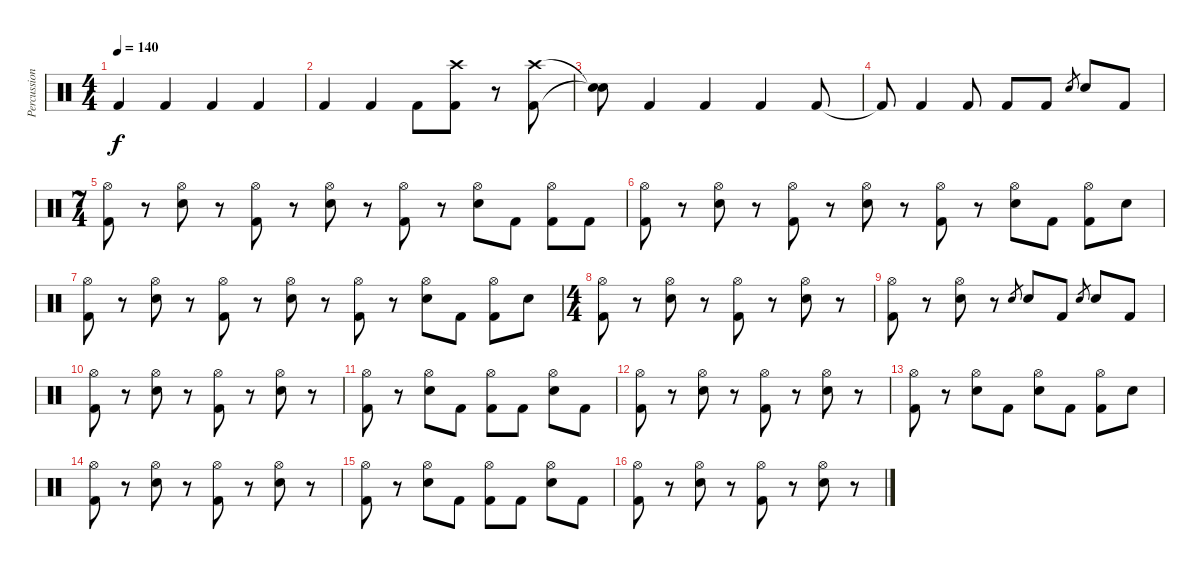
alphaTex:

\track ("Percussion" "Percussion") {instrument percussion}
\staff {score}
\articulation defaults
\ts (4 4)
\tempo 140
\clef neutral
\ks c "Kick (hit) 2".4{dy f} "Kick (hit) 2".4 "Kick (hit) 2".4 "Kick (hit) 2".4
|
"Kick (hit) 2".4 "Kick (hit) 2".4 "Kick (hit) 2".8 ("Crash high (hit)" "Kick (hit) 2").8 r.8 ("Crash high (hit)" "Kick (hit) 2").8 |
("Snare (hit)"{t} "Snare (hit)"{t}).8 "Kick (hit) 2".4 "Kick (hit) 2".4 "Kick (hit) 2".4 "Kick (hit) 2".8 |
"Kick (hit) 2"{t}.8 "Kick (hit) 2".4 "Kick (hit) 2".8 "Kick (hit) 2".8 "Kick (hit) 2".8 "Electric Snare (hit)".8{gr} "Electric Snare (hit)".8 "Kick (hit) 2".8 |
\ts (7 4)
("Hi-Hat (open)" "Kick (hit) 2").8 r.8 ("Hi-Hat (open)" "Electric Snare (hit)").8 r.8 ("Hi-Hat (open)" "Kick (hit) 2").8 r.8 ("Hi-Hat (open)" "Electric Snare (hit)").8 r.8 ("Hi-Hat (open)" "Kick (hit) 2").8 r.8 ("Hi-Hat (open)" "Electric Snare (hit)").8 "Kick (hit) 2".8 ("Hi-Hat (open)" "Kick (hit) 2").8 "Kick (hit) 2".8 |
("Hi-Hat (open)" "Kick (hit) 2").8 r.8 ("Hi-Hat (open)" "Electric Snare (hit)").8 r.8 ("Hi-Hat (open)" "Kick (hit) 2").8 r.8 ("Hi-Hat (open)" "Electric Snare (hit)").8 r.8 ("Hi-Hat (open)" "Kick (hit) 2").8 r.8 ("Hi-Hat (open)" "Electric Snare (hit)").8 "Kick (hit) 2".8 ("Hi-Hat (open)" "Kick (hit) 2").8 "Electric Snare (hit)".8 |
("Hi-Hat (open)" "Kick (hit) 2").8 r.8 ("Hi-Hat (open)" "Electric Snare (hit)").8 r.8 ("Hi-Hat (open)" "Kick (hit) 2").8 r.8 ("Hi-Hat (open)" "Electric Snare (hit)").8 r.8 ("Hi-Hat (open)" "Kick (hit) 2").8 r.8 ("Hi-Hat (open)" "Electric Snare (hit)").8 "Kick (hit) 2".8 ("Hi-Hat (open)" "Kick (hit) 2").8 "Electric Snare (hit)".8 |
\ts (4 4)
("Hi-Hat (open)" "Kick (hit) 2").8 r.8 ("Hi-Hat (open)" "Electric Snare (hit)").8 r.8 ("Hi-Hat (open)" "Kick (hit) 2").8 r.8 ("Hi-Hat (open)" "Electric Snare (hit)").8 r.8 |
("Hi-Hat (open)" "Kick (hit) 2").8 r.8 ("Hi-Hat (open)" "Electric Snare (hit)").8 r.8 "Electric Snare (hit)".8{gr} "Electric Snare (hit)".8 "Kick (hit) 2".8 "Electric Snare (hit)".8{gr} "Electric Snare (hit)".8 "Kick (hit) 2".8 |
("Hi-Hat (open)" "Kick (hit) 2").8 r.8 ("Hi-Hat (open)" "Electric Snare (hit)").8 r.8 ("Hi-Hat (open)" "Kick (hit) 2").8 r.8 ("Hi-Hat (open)" "Electric Snare (hit)").8 r.8 |
("Hi-Hat (open)" "Kick (hit) 2").8 r.8 ("Hi-Hat (open)" "Electric Snare (hit)").8 "Kick (hit) 2".8 ("Hi-Hat (open)" "Kick (hit) 2").8 "Kick (hit) 2".8 ("Hi-Hat (open)" "Electric Snare (hit)").8 "Kick (hit) 2".8 |
("Hi-Hat (open)" "Kick (hit) 2").8 r.8 ("Hi-Hat (open)" "Electric Snare (hit)").8 r.8 ("Hi-Hat (open)" "Kick (hit) 2").8 r.8 ("Hi-Hat (open)" "Electric Snare (hit)").8 r.8 |
("Hi-Hat (open)" "Kick (hit) 2").8 r.8 ("Hi-Hat (open)" "Electric Snare (hit)").8 "Kick (hit) 2".8 ("Hi-Hat (open)" "Electric Snare (hit)").8 "Kick (hit) 2".8 ("Hi-Hat (open)" "Kick (hit) 2").8 "Electric Snare (hit)".8 |
("Hi-Hat (open)" "Kick (hit) 2").8 r.8 ("Hi-Hat (open)" "Electric Snare (hit)").8 r.8 ("Hi-Hat (open)" "Kick (hit) 2").8 r.8 ("Hi-Hat (open)" "Electric Snare (hit)").8 r.8 |
("Hi-Hat (open)" "Kick (hit) 2").8 r.8 ("Hi-Hat (open)" "Electric Snare (hit)").8 "Kick (hit) 2".8 ("Hi-Hat (open)" "Kick (hit) 2").8 "Kick (hit) 2".8 ("Hi-Hat (open)" "Electric Snare (hit)").8 "Kick (hit) 2".8 |
("Hi-Hat (open)" "Kick (hit) 2").8 r.8 ("Hi-Hat (open)" "Electric Snare (hit)").8 r.8 ("Hi-Hat (open)" "Kick (hit) 2").8 r.8 ("Hi-Hat (open)" "Electric Snare (hit)").8 r.8
